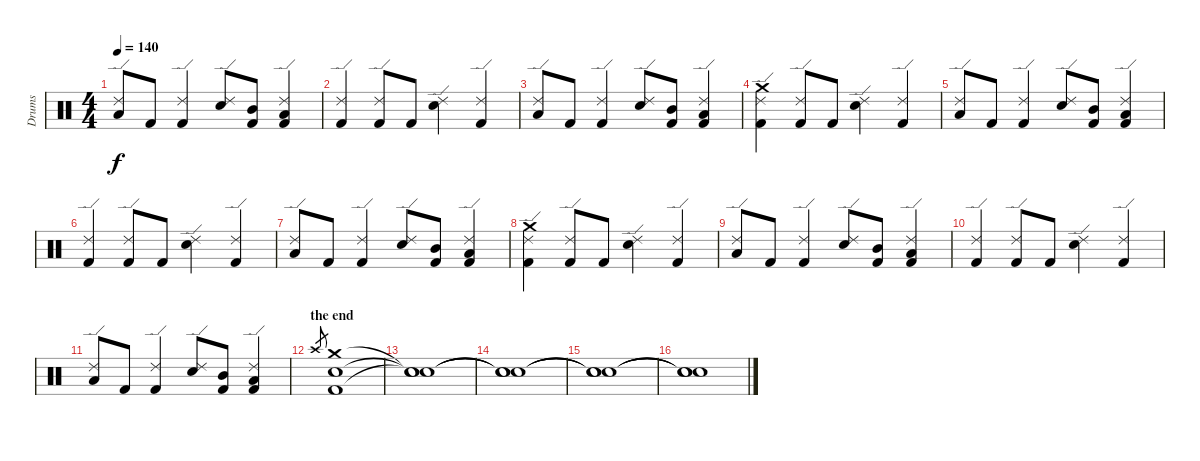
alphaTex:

\track ("Drums" "Drums") {instrument percussion}
\staff {score}
\articulation defaults
\ts (4 4)
\tempo 140
\clef neutral
\ks c
("Ride (edge) 2" "Low Tom (hit)").8{dy f} "Kick (hit) 2".8 ("Ride (edge) 2" "Kick (hit) 2").4 ("Ride (edge) 2" "Snare (hit) 2").8 ("Mid Tom (hit)" "Kick (hit) 2").8 ("Ride (edge) 2" "Low Tom (hit)" "Kick (hit) 2").4 |
("Ride (edge) 2" "Kick (hit) 2").4 ("Ride (edge) 2" "Kick (hit) 2").8 "Kick (hit) 2".8 ("Ride (edge) 2" "Snare (hit) 2").4 ("Ride (edge) 2" "Kick (hit) 2").4 |
("Ride (edge) 2" "Low Tom (hit)").8 "Kick (hit) 2".8 ("Ride (edge) 2" "Kick (hit) 2").4 ("Ride (edge) 2" "Snare (hit) 2").8 ("Mid Tom (hit)" "Kick (hit) 2").8 ("Ride (edge) 2" "Low Tom (hit)" "Kick (hit) 2").4 |
("Ride (edge) 2" "Crash medium (hit)" "Kick (hit) 2").4 ("Ride (edge) 2" "Kick (hit) 2").8 "Kick (hit) 2".8 ("Ride (edge) 2" "Snare (hit) 2").4 ("Ride (edge) 2" "Kick (hit) 2").4 |
("Ride (edge) 2" "Low Tom (hit)").8 "Kick (hit) 2".8 ("Ride (edge) 2" "Kick (hit) 2").4 ("Ride (edge) 2" "Snare (hit) 2").8 ("Mid Tom (hit)" "Kick (hit) 2").8 ("Ride (edge) 2" "Low Tom (hit)" "Kick (hit) 2").4 |
("Ride (edge) 2" "Kick (hit) 2").4 ("Ride (edge) 2" "Kick (hit) 2").8 "Kick (hit) 2".8 ("Ride (edge) 2" "Snare (hit) 2").4 ("Ride (edge) 2" "Kick (hit) 2").4 |
("Ride (edge) 2" "Low Tom (hit)").8 "Kick (hit) 2".8 ("Ride (edge) 2" "Kick (hit) 2").4 ("Ride (edge) 2" "Snare (hit) 2").8 ("Mid Tom (hit)" "Kick (hit) 2").8 ("Ride (edge) 2" "Low Tom (hit)" "Kick (hit) 2").4 |
("Ride (edge) 2" "Crash medium (hit)" "Kick (hit) 2").4 ("Ride (edge) 2" "Kick (hit) 2").8 "Kick (hit) 2".8 ("Ride (edge) 2" "Snare (hit) 2").4 ("Ride (edge) 2" "Kick (hit) 2").4 |
("Ride (edge) 2" "Low Tom (hit)").8 "Kick (hit) 2".8 ("Ride (edge) 2" "Kick (hit) 2").4 ("Ride (edge) 2" "Snare (hit) 2").8 ("Mid Tom (hit)" "Kick (hit) 2").8 ("Ride (edge) 2" "Low Tom (hit)" "Kick (hit) 2").4 |
("Ride (edge) 2" "Kick (hit) 2").4 ("Ride (edge) 2" "Kick (hit) 2").8 "Kick (hit) 2".8 ("Ride (edge) 2" "Snare (hit) 2").4 ("Ride (edge) 2" "Kick (hit) 2").4 |
("Ride (edge) 2" "Low Tom (hit)").8 "Kick (hit) 2".8 ("Ride (edge) 2" "Kick (hit) 2").4 ("Ride (edge) 2" "Snare (hit) 2").8 ("Mid Tom (hit)" "Kick (hit) 2").8 ("Ride (edge) 2" "Low Tom (hit)" "Kick (hit) 2").4 |
\section ("" "the end")
"Crash high (hit)".8{gr} ("Crash medium (hit)" "Snare (hit) 2" "Kick (hit) 2").1 |
("Snare (hit)"{t} "Snare (hit)"{t} "Snare (hit)"{t}).1 |
("Snare (hit)"{t} "Snare (hit)"{t} "Snare (hit)"{t}).1 |
("Snare (hit)"{t} "Snare (hit)"{t} "Snare (hit)"{t}).1 |
("Snare (hit)"{t} "Snare (hit)"{t} "Snare (hit)"{t}).1
